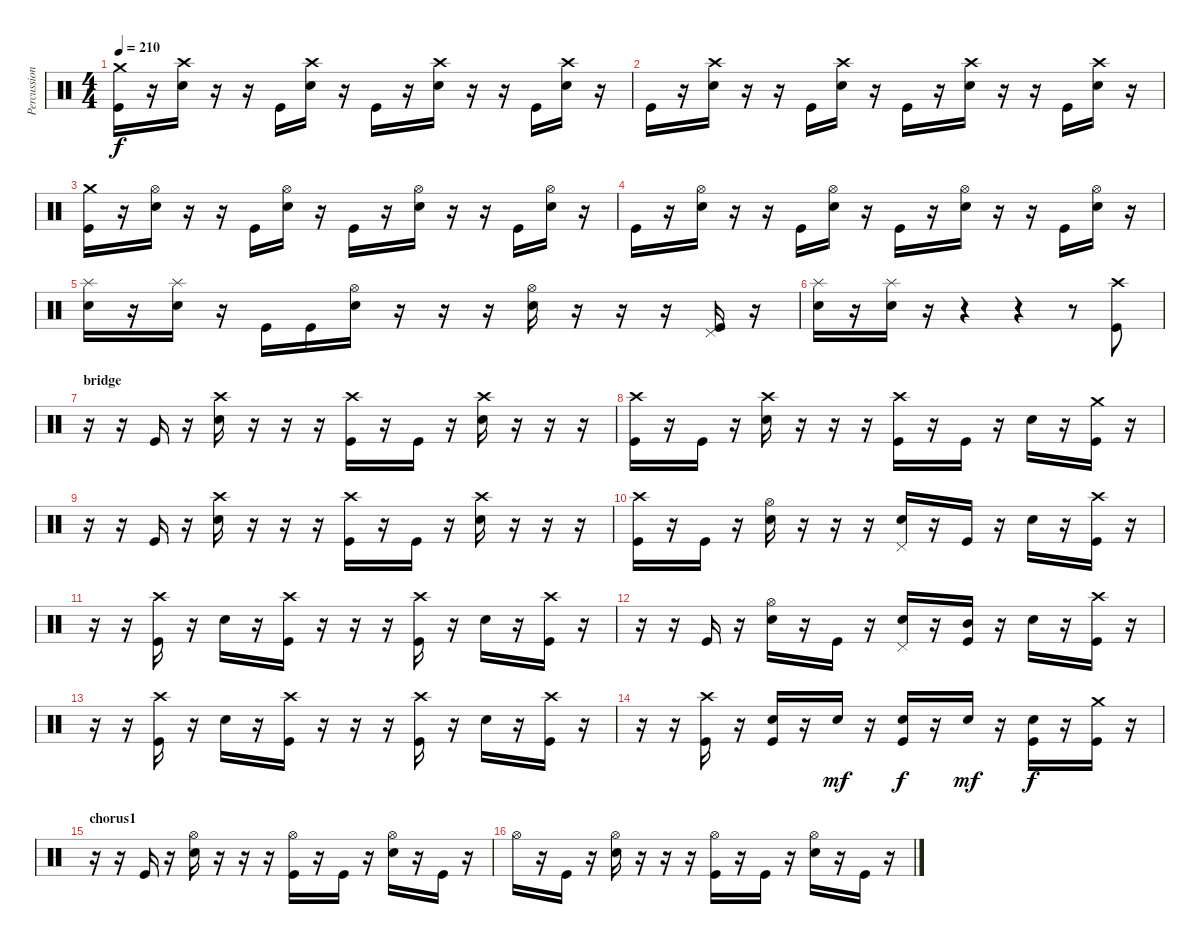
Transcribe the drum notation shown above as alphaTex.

\track ("Percussion" "Percussion") {instrument percussion}
\staff {score}
\articulation defaults
\ts (4 4)
\tempo 210
\clef neutral
\ks c
("Crash medium (hit)" "Kick (hit)").16{dy f} r.16 ("Crash high (hit)" "Electric Snare (hit)").16 r.16 r.16 "Kick (hit)".16 ("Crash high (hit)" "Electric Snare (hit)").16 r.16 "Kick (hit)".16 r.16 ("Crash high (hit)" "Electric Snare (hit)").16 r.16 r.16 "Kick (hit)".16 ("Crash high (hit)" "Electric Snare (hit)").16 r.16 |
"Kick (hit)".16 r.16 ("Crash high (hit)" "Electric Snare (hit)").16 r.16 r.16 "Kick (hit)".16 ("Crash high (hit)" "Electric Snare (hit)").16 r.16 "Kick (hit)".16 r.16 ("Crash high (hit)" "Electric Snare (hit)").16 r.16 r.16 "Kick (hit)".16 ("Crash high (hit)" "Electric Snare (hit)").16 r.16 |
("Crash medium (hit)" "Kick (hit)").16 r.16 ("Hi-Hat (open)" "Electric Snare (hit)").16 r.16 r.16 "Kick (hit)".16 ("Hi-Hat (open)" "Electric Snare (hit)").16 r.16 "Kick (hit)".16 r.16 ("Hi-Hat (open)" "Electric Snare (hit)").16 r.16 r.16 "Kick (hit)".16 ("Hi-Hat (open)" "Electric Snare (hit)").16 r.16 |
"Kick (hit)".16 r.16 ("Hi-Hat (open)" "Electric Snare (hit)").16 r.16 r.16 "Kick (hit)".16 ("Hi-Hat (open)" "Electric Snare (hit)").16 r.16 "Kick (hit)".16 r.16 ("Hi-Hat (open)" "Electric Snare (hit)").16 r.16 r.16 "Kick (hit)".16 ("Hi-Hat (open)" "Electric Snare (hit)").16 r.16 |
("Splash (hit)" "Electric Snare (hit)").16 r.16 ("Splash (hit)" "Electric Snare (hit)").16 r.16 "Kick (hit)".16 "Kick (hit)".16 ("Hi-Hat (open)" "Electric Snare (hit)").16 r.16 r.16 r.16 ("Hi-Hat (open)" "Electric Snare (hit)").16 r.16 r.16 r.16 ("Pedal Hi-Hat (hit)" "Kick (hit)").16 r.16 |
("Splash (hit)" "Electric Snare (hit)").16 r.16 ("Splash (hit)" "Electric Snare (hit)").16 r.16 r.4 r.4 r.8 ("Kick (hit)" "Crash high (hit)").8 |
\section ("" "bridge")
r.16 r.16 "Kick (hit)".16 r.16 ("Electric Snare (hit)" "Crash high (hit)").16 r.16 r.16 r.16 ("Kick (hit)" "Crash high (hit)").16 r.16 "Kick (hit)".16 r.16 ("Electric Snare (hit)" "Crash high (hit)").16 r.16 r.16 r.16 |
("Crash high (hit)" "Kick (hit)").16 r.16 "Kick (hit)".16 r.16 ("Electric Snare (hit)" "Crash high (hit)").16 r.16 r.16 r.16 ("Kick (hit)" "Crash high (hit)").16 r.16 "Kick (hit)".16 r.16 "Electric Snare (hit)".16 r.16 ("Kick (hit)" "Crash medium (hit)").16 r.16 |
r.16 r.16 "Kick (hit)".16 r.16 ("Electric Snare (hit)" "Crash high (hit)").16 r.16 r.16 r.16 ("Kick (hit)" "Crash high (hit)").16 r.16 "Kick (hit)".16 r.16 ("Electric Snare (hit)" "Crash high (hit)").16 r.16 r.16 r.16 |
("Crash high (hit)" "Kick (hit)").16 r.16 "Kick (hit)".16 r.16 ("Electric Snare (hit)" "Hi-Hat (open)").16 r.16 r.16 r.16 ("Electric Snare (hit)" "Pedal Hi-Hat (hit)").16 r.16 "Kick (hit)".16 r.16 "Electric Snare (hit)".16 r.16 ("Kick (hit)" "Crash high (hit)").16 r.16 |
r.16 r.16 ("Crash high (hit)" "Kick (hit)").16 r.16 "Electric Snare (hit)".16 r.16 ("Kick (hit)" "Crash high (hit)").16 r.16 r.16 r.16 ("Kick (hit)" "Crash high (hit)").16 r.16 "Electric Snare (hit)".16 r.16 ("Kick (hit)" "Crash high (hit)").16 r.16 |
r.16 r.16 "Kick (hit)".16 r.16 ("Electric Snare (hit)" "Hi-Hat (open)").16 r.16 "Kick (hit)".16 r.16 ("Electric Snare (hit)" "Pedal Hi-Hat (hit)").16 r.16 ("Kick (hit)" "Mid Tom (hit)").16 r.16 "Electric Snare (hit)".16 r.16 ("Kick (hit)" "Crash high (hit)").16 r.16 |
r.16 r.16 ("Crash high (hit)" "Kick (hit)").16 r.16 "Electric Snare (hit)".16 r.16 ("Kick (hit)" "Crash high (hit)").16 r.16 r.16 r.16 ("Kick (hit)" "Crash high (hit)").16 r.16 "Electric Snare (hit)".16 r.16 ("Kick (hit)" "Crash high (hit)").16 r.16 |
r.16 r.16 ("Crash high (hit)" "Kick (hit)").16 r.16 ("Electric Snare (hit)" "Kick (hit)").16 r.16 "Electric Snare (hit)".16{dy mf} r.16 ("Electric Snare (hit)" "Kick (hit)").16{dy f} r.16 "Electric Snare (hit)".16{dy mf} r.16 ("Electric Snare (hit)" "Kick (hit)").16{dy f} r.16 ("Kick (hit)" "Crash medium (hit)").16 r.16 |
\section ("" "chorus1")
r.16 r.16 "Kick (hit)".16 r.16 ("Hi-Hat (open)" "Electric Snare (hit)").16 r.16 r.16 r.16 ("Kick (hit)" "Hi-Hat (open)").16 r.16 "Kick (hit)".16 r.16 ("Electric Snare (hit)" "Hi-Hat (open)").16 r.16 "Kick (hit)".16 r.16 |
"Hi-Hat (open)".16 r.16 "Kick (hit)".16 r.16 ("Hi-Hat (open)" "Electric Snare (hit)").16 r.16 r.16 r.16 ("Kick (hit)" "Hi-Hat (open)").16 r.16 "Kick (hit)".16 r.16 ("Electric Snare (hit)" "Hi-Hat (open)").16 r.16 "Kick (hit)".16 r.16
